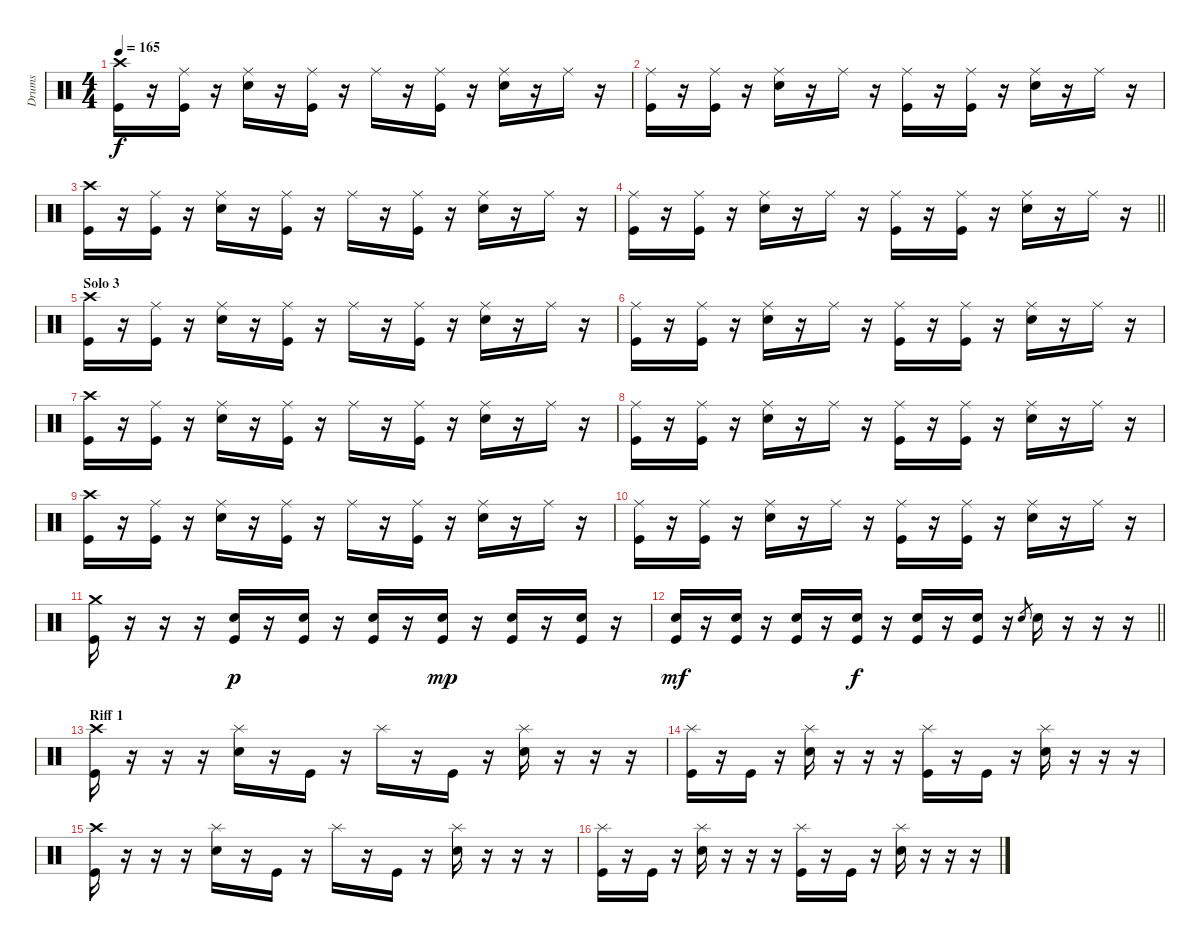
\track ("Drums" "Drums") {instrument percussion}
\staff {score}
\articulation defaults
\ts (4 4)
\tempo 165
\clef neutral
\ks c
("Crash high (hit)" "Kick (hit)").16{dy f} r.16 ("Ride (middle)" "Kick (hit)").16 r.16 ("Ride (middle)" "Electric Snare (hit)").16 r.16 ("Ride (middle)" "Kick (hit)").16 r.16 "Ride (middle)".16 r.16 ("Ride (middle)" "Kick (hit)").16 r.16 ("Ride (middle)" "Electric Snare (hit)").16 r.16 "Ride (middle)".16 r.16 |
("Ride (middle)" "Kick (hit)").16 r.16 ("Ride (middle)" "Kick (hit)").16 r.16 ("Ride (middle)" "Electric Snare (hit)").16 r.16 "Ride (middle)".16 r.16 ("Ride (middle)" "Kick (hit)").16 r.16 ("Ride (middle)" "Kick (hit)").16 r.16 ("Ride (middle)" "Electric Snare (hit)").16 r.16 "Ride (middle)".16 r.16 |
("Crash high (hit)" "Kick (hit)").16 r.16 ("Ride (middle)" "Kick (hit)").16 r.16 ("Ride (middle)" "Electric Snare (hit)").16 r.16 ("Ride (middle)" "Kick (hit)").16 r.16 "Ride (middle)".16 r.16 ("Ride (middle)" "Kick (hit)").16 r.16 ("Ride (middle)" "Electric Snare (hit)").16 r.16 "Ride (middle)".16 r.16 |
\barLineRight lightlight
("Ride (middle)" "Kick (hit)").16 r.16 ("Ride (middle)" "Kick (hit)").16 r.16 ("Ride (middle)" "Electric Snare (hit)").16 r.16 "Ride (middle)".16 r.16 ("Ride (middle)" "Kick (hit)").16 r.16 ("Ride (middle)" "Kick (hit)").16 r.16 ("Ride (middle)" "Electric Snare (hit)").16 r.16 "Ride (middle)".16 r.16 |
\section ("" "Solo 3")
("Crash high (hit)" "Kick (hit)").16 r.16 ("Ride (middle)" "Kick (hit)").16 r.16 ("Ride (middle)" "Electric Snare (hit)").16 r.16 ("Ride (middle)" "Kick (hit)").16 r.16 "Ride (middle)".16 r.16 ("Ride (middle)" "Kick (hit)").16 r.16 ("Ride (middle)" "Electric Snare (hit)").16 r.16 "Ride (middle)".16 r.16 |
("Ride (middle)" "Kick (hit)").16 r.16 ("Ride (middle)" "Kick (hit)").16 r.16 ("Ride (middle)" "Electric Snare (hit)").16 r.16 "Ride (middle)".16 r.16 ("Ride (middle)" "Kick (hit)").16 r.16 ("Ride (middle)" "Kick (hit)").16 r.16 ("Ride (middle)" "Electric Snare (hit)").16 r.16 "Ride (middle)".16 r.16 |
("Crash high (hit)" "Kick (hit)").16 r.16 ("Ride (middle)" "Kick (hit)").16 r.16 ("Ride (middle)" "Electric Snare (hit)").16 r.16 ("Ride (middle)" "Kick (hit)").16 r.16 "Ride (middle)".16 r.16 ("Ride (middle)" "Kick (hit)").16 r.16 ("Ride (middle)" "Electric Snare (hit)").16 r.16 "Ride (middle)".16 r.16 |
("Ride (middle)" "Kick (hit)").16 r.16 ("Ride (middle)" "Kick (hit)").16 r.16 ("Ride (middle)" "Electric Snare (hit)").16 r.16 "Ride (middle)".16 r.16 ("Ride (middle)" "Kick (hit)").16 r.16 ("Ride (middle)" "Kick (hit)").16 r.16 ("Ride (middle)" "Electric Snare (hit)").16 r.16 "Ride (middle)".16 r.16 |
("Crash high (hit)" "Kick (hit)").16 r.16 ("Ride (middle)" "Kick (hit)").16 r.16 ("Ride (middle)" "Electric Snare (hit)").16 r.16 ("Ride (middle)" "Kick (hit)").16 r.16 "Ride (middle)".16 r.16 ("Ride (middle)" "Kick (hit)").16 r.16 ("Ride (middle)" "Electric Snare (hit)").16 r.16 "Ride (middle)".16 r.16 |
("Ride (middle)" "Kick (hit)").16 r.16 ("Ride (middle)" "Kick (hit)").16 r.16 ("Ride (middle)" "Electric Snare (hit)").16 r.16 "Ride (middle)".16 r.16 ("Ride (middle)" "Kick (hit)").16 r.16 ("Ride (middle)" "Kick (hit)").16 r.16 ("Ride (middle)" "Electric Snare (hit)").16 r.16 "Ride (middle)".16 r.16 |
("Crash medium (hit)" "Kick (hit)").16 r.16 r.16 r.16 ("Electric Snare (hit)" "Kick (hit)").16{dy p} r.16 ("Electric Snare (hit)" "Kick (hit)").16 r.16 ("Electric Snare (hit)" "Kick (hit)").16 r.16 ("Electric Snare (hit)" "Kick (hit)").16{dy mp} r.16 ("Electric Snare (hit)" "Kick (hit)").16 r.16 ("Electric Snare (hit)" "Kick (hit)").16 r.16 |
\barLineRight lightlight
("Electric Snare (hit)" "Kick (hit)").16{dy mf} r.16 ("Electric Snare (hit)" "Kick (hit)").16 r.16 ("Electric Snare (hit)" "Kick (hit)").16 r.16 ("Electric Snare (hit)" "Kick (hit)").16{dy f} r.16 ("Electric Snare (hit)" "Kick (hit)").16 r.16 ("Electric Snare (hit)" "Kick (hit)").16 r.16 "Electric Snare (hit)".8{gr} "Electric Snare (hit)".16 r.16 r.16 r.16 |
\section ("" "Riff 1")
("Crash high (hit)" "Kick (hit)").16 r.16 r.16 r.16 ("Splash (hit)" "Electric Snare (hit)").16 r.16 "Kick (hit)".16 r.16 "Splash (hit)".16 r.16 "Kick (hit)".16 r.16 ("Splash (hit)" "Electric Snare (hit)").16 r.16 r.16 r.16 |
("Splash (hit)" "Kick (hit)").16 r.16 "Kick (hit)".16 r.16 ("Splash (hit)" "Electric Snare (hit)").16 r.16 r.16 r.16 ("Splash (hit)" "Kick (hit)").16 r.16 "Kick (hit)".16 r.16 ("Splash (hit)" "Electric Snare (hit)").16 r.16 r.16 r.16 |
("Crash high (hit)" "Kick (hit)").16 r.16 r.16 r.16 ("Splash (hit)" "Electric Snare (hit)").16 r.16 "Kick (hit)".16 r.16 "Splash (hit)".16 r.16 "Kick (hit)".16 r.16 ("Splash (hit)" "Electric Snare (hit)").16 r.16 r.16 r.16 |
("Splash (hit)" "Kick (hit)").16 r.16 "Kick (hit)".16 r.16 ("Splash (hit)" "Electric Snare (hit)").16 r.16 r.16 r.16 ("Splash (hit)" "Kick (hit)").16 r.16 "Kick (hit)".16 r.16 ("Splash (hit)" "Electric Snare (hit)").16 r.16 r.16 r.16
